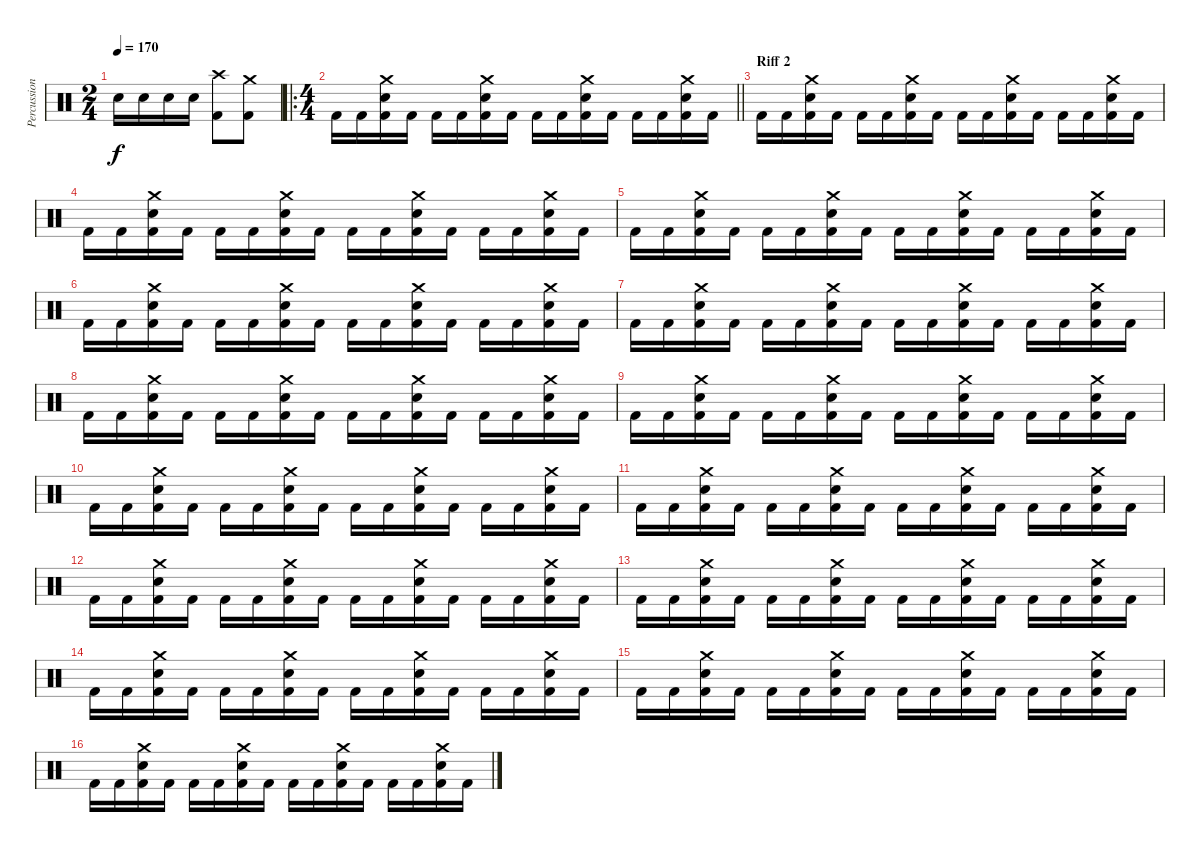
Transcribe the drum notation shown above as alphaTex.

\track ("Percussion" "Percussion") {instrument percussion}
\staff {score}
\articulation defaults
\ts (2 4)
\tempo 170
\clef neutral
\ks c "Electric Snare (hit)".16{dy f} "Electric Snare (hit)".16 "Electric Snare (hit)".16 "Electric Snare (hit)".16
("Crash high (hit)" "Kick (hit) 2").8 ("Crash medium (hit)" "Kick (hit) 2").8 |
\ro
\ts (4 4)
\barLineRight lightlight "Kick (hit) 2".16 "Kick (hit) 2".16
("Crash medium (hit)" "Electric Snare (hit)" "Kick (hit) 2").16 "Kick (hit) 2".16 "Kick (hit) 2".16 "Kick (hit) 2".16 ("Crash medium (hit)" "Electric Snare (hit)" "Kick (hit) 2").16 "Kick (hit) 2".16 "Kick (hit) 2".16 "Kick (hit) 2".16 ("Crash medium (hit)" "Electric Snare (hit)" "Kick (hit) 2").16 "Kick (hit) 2".16 "Kick (hit) 2".16 "Kick (hit) 2".16 ("Crash medium (hit)" "Electric Snare (hit)" "Kick (hit) 2").16 "Kick (hit) 2".16 |
\section ("" "Riff 2")
"Kick (hit) 2".16 "Kick (hit) 2".16 ("Crash medium (hit)" "Electric Snare (hit)" "Kick (hit) 2").16 "Kick (hit) 2".16 "Kick (hit) 2".16 "Kick (hit) 2".16 ("Crash medium (hit)" "Electric Snare (hit)" "Kick (hit) 2").16 "Kick (hit) 2".16 "Kick (hit) 2".16 "Kick (hit) 2".16 ("Crash medium (hit)" "Electric Snare (hit)" "Kick (hit) 2").16 "Kick (hit) 2".16 "Kick (hit) 2".16 "Kick (hit) 2".16 ("Crash medium (hit)" "Electric Snare (hit)" "Kick (hit) 2").16 "Kick (hit) 2".16 |
"Kick (hit) 2".16 "Kick (hit) 2".16 ("Crash medium (hit)" "Electric Snare (hit)" "Kick (hit) 2").16 "Kick (hit) 2".16 "Kick (hit) 2".16 "Kick (hit) 2".16 ("Crash medium (hit)" "Electric Snare (hit)" "Kick (hit) 2").16 "Kick (hit) 2".16 "Kick (hit) 2".16 "Kick (hit) 2".16 ("Crash medium (hit)" "Electric Snare (hit)" "Kick (hit) 2").16 "Kick (hit) 2".16 "Kick (hit) 2".16 "Kick (hit) 2".16 ("Crash medium (hit)" "Electric Snare (hit)" "Kick (hit) 2").16 "Kick (hit) 2".16 |
"Kick (hit) 2".16 "Kick (hit) 2".16 ("Crash medium (hit)" "Electric Snare (hit)" "Kick (hit) 2").16 "Kick (hit) 2".16 "Kick (hit) 2".16 "Kick (hit) 2".16 ("Crash medium (hit)" "Electric Snare (hit)" "Kick (hit) 2").16 "Kick (hit) 2".16 "Kick (hit) 2".16 "Kick (hit) 2".16 ("Crash medium (hit)" "Electric Snare (hit)" "Kick (hit) 2").16 "Kick (hit) 2".16 "Kick (hit) 2".16 "Kick (hit) 2".16 ("Crash medium (hit)" "Electric Snare (hit)" "Kick (hit) 2").16 "Kick (hit) 2".16 |
"Kick (hit) 2".16 "Kick (hit) 2".16 ("Crash medium (hit)" "Electric Snare (hit)" "Kick (hit) 2").16 "Kick (hit) 2".16 "Kick (hit) 2".16 "Kick (hit) 2".16 ("Crash medium (hit)" "Electric Snare (hit)" "Kick (hit) 2").16 "Kick (hit) 2".16 "Kick (hit) 2".16 "Kick (hit) 2".16 ("Crash medium (hit)" "Electric Snare (hit)" "Kick (hit) 2").16 "Kick (hit) 2".16 "Kick (hit) 2".16 "Kick (hit) 2".16 ("Crash medium (hit)" "Electric Snare (hit)" "Kick (hit) 2").16 "Kick (hit) 2".16 |
"Kick (hit) 2".16 "Kick (hit) 2".16 ("Crash medium (hit)" "Electric Snare (hit)" "Kick (hit) 2").16 "Kick (hit) 2".16 "Kick (hit) 2".16 "Kick (hit) 2".16 ("Crash medium (hit)" "Electric Snare (hit)" "Kick (hit) 2").16 "Kick (hit) 2".16 "Kick (hit) 2".16 "Kick (hit) 2".16 ("Crash medium (hit)" "Electric Snare (hit)" "Kick (hit) 2").16 "Kick (hit) 2".16 "Kick (hit) 2".16 "Kick (hit) 2".16 ("Crash medium (hit)" "Electric Snare (hit)" "Kick (hit) 2").16 "Kick (hit) 2".16 |
"Kick (hit) 2".16 "Kick (hit) 2".16 ("Crash medium (hit)" "Electric Snare (hit)" "Kick (hit) 2").16 "Kick (hit) 2".16 "Kick (hit) 2".16 "Kick (hit) 2".16 ("Crash medium (hit)" "Electric Snare (hit)" "Kick (hit) 2").16 "Kick (hit) 2".16 "Kick (hit) 2".16 "Kick (hit) 2".16 ("Crash medium (hit)" "Electric Snare (hit)" "Kick (hit) 2").16 "Kick (hit) 2".16 "Kick (hit) 2".16 "Kick (hit) 2".16 ("Crash medium (hit)" "Electric Snare (hit)" "Kick (hit) 2").16 "Kick (hit) 2".16 |
"Kick (hit) 2".16 "Kick (hit) 2".16 ("Crash medium (hit)" "Electric Snare (hit)" "Kick (hit) 2").16 "Kick (hit) 2".16 "Kick (hit) 2".16 "Kick (hit) 2".16 ("Crash medium (hit)" "Electric Snare (hit)" "Kick (hit) 2").16 "Kick (hit) 2".16 "Kick (hit) 2".16 "Kick (hit) 2".16 ("Crash medium (hit)" "Electric Snare (hit)" "Kick (hit) 2").16 "Kick (hit) 2".16 "Kick (hit) 2".16 "Kick (hit) 2".16 ("Crash medium (hit)" "Electric Snare (hit)" "Kick (hit) 2").16 "Kick (hit) 2".16 |
"Kick (hit) 2".16 "Kick (hit) 2".16 ("Crash medium (hit)" "Electric Snare (hit)" "Kick (hit) 2").16 "Kick (hit) 2".16 "Kick (hit) 2".16 "Kick (hit) 2".16 ("Crash medium (hit)" "Electric Snare (hit)" "Kick (hit) 2").16 "Kick (hit) 2".16 "Kick (hit) 2".16 "Kick (hit) 2".16 ("Crash medium (hit)" "Electric Snare (hit)" "Kick (hit) 2").16 "Kick (hit) 2".16 "Kick (hit) 2".16 "Kick (hit) 2".16 ("Crash medium (hit)" "Electric Snare (hit)" "Kick (hit) 2").16 "Kick (hit) 2".16 |
"Kick (hit) 2".16 "Kick (hit) 2".16 ("Crash medium (hit)" "Electric Snare (hit)" "Kick (hit) 2").16 "Kick (hit) 2".16 "Kick (hit) 2".16 "Kick (hit) 2".16 ("Crash medium (hit)" "Electric Snare (hit)" "Kick (hit) 2").16 "Kick (hit) 2".16 "Kick (hit) 2".16 "Kick (hit) 2".16 ("Crash medium (hit)" "Electric Snare (hit)" "Kick (hit) 2").16 "Kick (hit) 2".16 "Kick (hit) 2".16 "Kick (hit) 2".16 ("Crash medium (hit)" "Electric Snare (hit)" "Kick (hit) 2").16 "Kick (hit) 2".16 |
"Kick (hit) 2".16 "Kick (hit) 2".16 ("Crash medium (hit)" "Electric Snare (hit)" "Kick (hit) 2").16 "Kick (hit) 2".16 "Kick (hit) 2".16 "Kick (hit) 2".16 ("Crash medium (hit)" "Electric Snare (hit)" "Kick (hit) 2").16 "Kick (hit) 2".16 "Kick (hit) 2".16 "Kick (hit) 2".16 ("Crash medium (hit)" "Electric Snare (hit)" "Kick (hit) 2").16 "Kick (hit) 2".16 "Kick (hit) 2".16 "Kick (hit) 2".16 ("Crash medium (hit)" "Electric Snare (hit)" "Kick (hit) 2").16 "Kick (hit) 2".16 |
"Kick (hit) 2".16 "Kick (hit) 2".16 ("Crash medium (hit)" "Electric Snare (hit)" "Kick (hit) 2").16 "Kick (hit) 2".16 "Kick (hit) 2".16 "Kick (hit) 2".16 ("Crash medium (hit)" "Electric Snare (hit)" "Kick (hit) 2").16 "Kick (hit) 2".16 "Kick (hit) 2".16 "Kick (hit) 2".16 ("Crash medium (hit)" "Electric Snare (hit)" "Kick (hit) 2").16 "Kick (hit) 2".16 "Kick (hit) 2".16 "Kick (hit) 2".16 ("Crash medium (hit)" "Electric Snare (hit)" "Kick (hit) 2").16 "Kick (hit) 2".16 |
"Kick (hit) 2".16 "Kick (hit) 2".16 ("Crash medium (hit)" "Electric Snare (hit)" "Kick (hit) 2").16 "Kick (hit) 2".16 "Kick (hit) 2".16 "Kick (hit) 2".16 ("Crash medium (hit)" "Electric Snare (hit)" "Kick (hit) 2").16 "Kick (hit) 2".16 "Kick (hit) 2".16 "Kick (hit) 2".16 ("Crash medium (hit)" "Electric Snare (hit)" "Kick (hit) 2").16 "Kick (hit) 2".16 "Kick (hit) 2".16 "Kick (hit) 2".16 ("Crash medium (hit)" "Electric Snare (hit)" "Kick (hit) 2").16 "Kick (hit) 2".16 |
"Kick (hit) 2".16 "Kick (hit) 2".16 ("Crash medium (hit)" "Electric Snare (hit)" "Kick (hit) 2").16 "Kick (hit) 2".16 "Kick (hit) 2".16 "Kick (hit) 2".16 ("Crash medium (hit)" "Electric Snare (hit)" "Kick (hit) 2").16 "Kick (hit) 2".16 "Kick (hit) 2".16 "Kick (hit) 2".16 ("Crash medium (hit)" "Electric Snare (hit)" "Kick (hit) 2").16 "Kick (hit) 2".16 "Kick (hit) 2".16 "Kick (hit) 2".16 ("Crash medium (hit)" "Electric Snare (hit)" "Kick (hit) 2").16 "Kick (hit) 2".16 |
"Kick (hit) 2".16 "Kick (hit) 2".16 ("Crash medium (hit)" "Electric Snare (hit)" "Kick (hit) 2").16 "Kick (hit) 2".16 "Kick (hit) 2".16 "Kick (hit) 2".16 ("Crash medium (hit)" "Electric Snare (hit)" "Kick (hit) 2").16 "Kick (hit) 2".16 "Kick (hit) 2".16 "Kick (hit) 2".16 ("Crash medium (hit)" "Electric Snare (hit)" "Kick (hit) 2").16 "Kick (hit) 2".16 "Kick (hit) 2".16 "Kick (hit) 2".16 ("Crash medium (hit)" "Electric Snare (hit)" "Kick (hit) 2").16 "Kick (hit) 2".16
